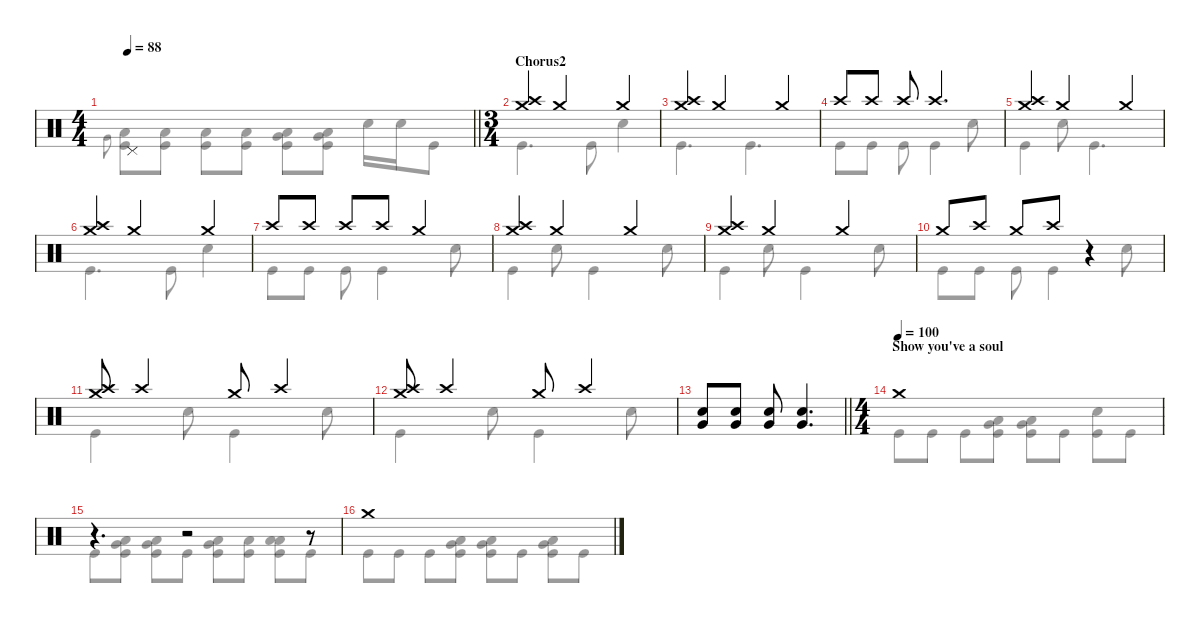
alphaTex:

\defaultSystemsLayout 4
\hideDynamics
\bracketExtendMode nobrackets
\singleTrackTrackNamePolicy hidden
\multiTrackTrackNamePolicy hidden
\firstSystemTrackNameMode fullname
\otherSystemsTrackNameOrientation horizontal
\track ("Drums" "drm.") {instrument percussion}
\staff {score}
\articulation defaults
\voice
\ts (4 4)
\tempo 88
\clef neutral
\barLineRight lightlight
\ks c "Pedal Hi-Hat (hit)".1{dy f beam Up}
|
\ts (3 4)
\beaming (8 2 2 2)
\section ("" "Chorus2")
("Crash medium (hit)" "Crash high (hit)").4{beam Up} "Crash medium (hit)".4{beam Up} "Crash medium (hit)".4{beam Up} |
("Crash medium (hit)" "Crash high (hit)").4{beam Up} "Crash medium (hit)".4{beam Up} "Crash medium (hit)".4{beam Up} |
"Crash high (hit)".8{beam Up} "Crash high (hit)".8{beam Up} "Crash high (hit)".8{beam Up} "Crash high (hit)".4{d beam Up} |
("Crash medium (hit)" "Crash high (hit)").4{beam Up} "Crash medium (hit)".4{beam Up} "Crash medium (hit)".4{beam Up} |
("Crash medium (hit)" "Crash high (hit)").4{beam Up} "Crash medium (hit)".4{beam Up} "Crash medium (hit)".4{beam Up} |
"Crash high (hit)".8{beam Up} "Crash high (hit)".8{beam Up} "Crash high (hit)".8{beam Up} "Crash high (hit)".8{beam Up} "Crash medium (hit)".4{beam Up} |
("Crash medium (hit)" "Crash high (hit)").4{beam Up} "Crash medium (hit)".4{beam Up} "Crash medium (hit)".4{beam Up} |
("Crash medium (hit)" "Crash high (hit)").4{beam Up} "Crash medium (hit)".4{beam Up} "Crash medium (hit)".4{beam Up} |
"Crash medium (hit)".8{beam Up} "Crash high (hit)".8{beam Up} "Crash medium (hit)".8{beam Up} "Crash high (hit)".8{beam Up} r.4{beam Up} |
("Crash medium (hit)" "Crash high (hit)").8{beam Up} "Crash high (hit)".4{dy mp beam Up} "Crash medium (hit)".8{dy f beam Up} "Crash high (hit)".4{dy mp beam Up} |
("Crash medium (hit)" "Crash high (hit)").8{dy f beam Up} "Crash high (hit)".4{dy mp beam Up} "Crash medium (hit)".8{dy f beam Up} "Crash high (hit)".4{dy mp beam Up} |
\barLineRight lightlight
("Snare (hit) 2" "Very Low Tom (hit)").8{dy f beam Up} ("Snare (hit) 2" "Very Low Tom (hit)").8{beam Up} ("Snare (hit) 2" "Very Low Tom (hit)").8{beam Up} ("Snare (hit) 2" "Very Low Tom (hit)").4{d beam Up} |
\ts (4 4)
\beaming (8 2 2 2 2)
\section ("" "Show you've a soul")
\tempo (100)
"Crash medium (hit)".1{beam Up} |
r.4{d beam Up} r.2{beam Up} r.8{beam Up} |
"Crash medium (hit)".1{beam Up}
\voice
\clef neutral
\ottava regular
\simile none
\barLineRight lightlight
\ks c "Very Low Tom (hit)".8{gr onbeat dy mf beam Down}
("Low Floor Tom (hit)" "Kick (hit)").8{dy f beam Down} ("Low Floor Tom (hit)" "Kick (hit)").8{beam Down} ("Low Floor Tom (hit)" "Kick (hit)").8{beam Down} ("Low Floor Tom (hit)" "Kick (hit)").8{beam Down} ("Very Low Tom (hit)" "Low Floor Tom (hit)" "Kick (hit)").8{beam Down} ("Very Low Tom (hit)" "Low Floor Tom (hit)" "Kick (hit)").8{beam Down} "Snare (hit) 2".16{beam Down} "Snare (hit) 2".16{beam Down} "Kick (hit)".8{beam Down} |
"Kick (hit)".4{d beam Down} "Kick (hit)".8{beam Down} "Snare (hit) 2".4{beam Down} |
"Kick (hit)".4{d beam Down} "Kick (hit)".4{d beam Down} |
"Kick (hit)".8{beam Down} "Kick (hit)".8{beam Down} "Kick (hit)".8{beam Down} "Kick (hit)".4{beam Down} "Snare (hit) 2".8{beam Down} |
"Kick (hit)".4{beam Down} "Snare (hit) 2".8{beam Down} "Kick (hit)".4{d beam Down} |
"Kick (hit)".4{d beam Down} "Kick (hit)".8{beam Down} "Snare (hit) 2".4{beam Down} |
"Kick (hit)".8{beam Down} "Kick (hit)".8{beam Down} "Kick (hit)".8{beam Down} "Kick (hit)".4{beam Down} "Snare (hit) 2".8{beam Down} |
"Kick (hit)".4{beam Down} "Snare (hit) 2".8{beam Down} "Kick (hit)".4{beam Down} "Snare (hit) 2".8{beam Down} |
"Kick (hit)".4{beam Down} "Snare (hit) 2".8{beam Down} "Kick (hit)".4{beam Down} "Snare (hit) 2".8{beam Down} |
"Kick (hit)".8{beam Down} "Kick (hit)".8{beam Down} "Kick (hit)".8{beam Down} "Kick (hit)".4{beam Down} "Snare (hit) 2".8{beam Down} |
"Kick (hit)".4{beam Down} "Snare (hit) 2".8{beam Down} "Kick (hit)".4{beam Down} "Snare (hit) 2".8{beam Down} |
"Kick (hit)".4{beam Down} "Snare (hit) 2".8{beam Down} "Kick (hit)".4{beam Down} "Snare (hit) 2".8{beam Down} |
\barLineRight lightlight
|
"Kick (hit)".8{beam Down} "Kick (hit)".8{beam Down} "Kick (hit)".8{beam Down} ("Low Tom (hit)" "Very Low Tom (hit)" "Kick (hit)").8{beam Down} ("Low Tom (hit)" "Very Low Tom (hit)" "Kick (hit)").8{beam Down} "Kick (hit)".8{beam Down} ("Snare (hit) 2" "Kick (hit)").8{beam Down} "Kick (hit)".8{beam Down} |
"Kick (hit)".8{beam Down} ("Low Tom (hit)" "Very Low Tom (hit)" "Kick (hit)").8{beam Down} ("Low Tom (hit)" "Very Low Tom (hit)" "Kick (hit)").8{beam Down} "Kick (hit)".8{beam Down} ("Low Tom (hit)" "Very Low Tom (hit)" "Kick (hit)").8{beam Down} ("Low Tom (hit)" "Kick (hit)").8{beam Down} ("Low Tom (hit)" "Low Floor Tom (hit)" "Kick (hit)").8{beam Down} "Kick (hit)".8{beam Down} |
"Kick (hit)".8{beam Down} "Kick (hit)".8{beam Down} "Kick (hit)".8{beam Down} ("Low Tom (hit)" "Very Low Tom (hit)" "Kick (hit)").8{beam Down} ("Low Tom (hit)" "Very Low Tom (hit)" "Kick (hit)").8{beam Down} "Kick (hit)".8{beam Down} ("Low Tom (hit)" "Very Low Tom (hit)" "Kick (hit)").8{beam Down} "Kick (hit)".8{beam Down}
